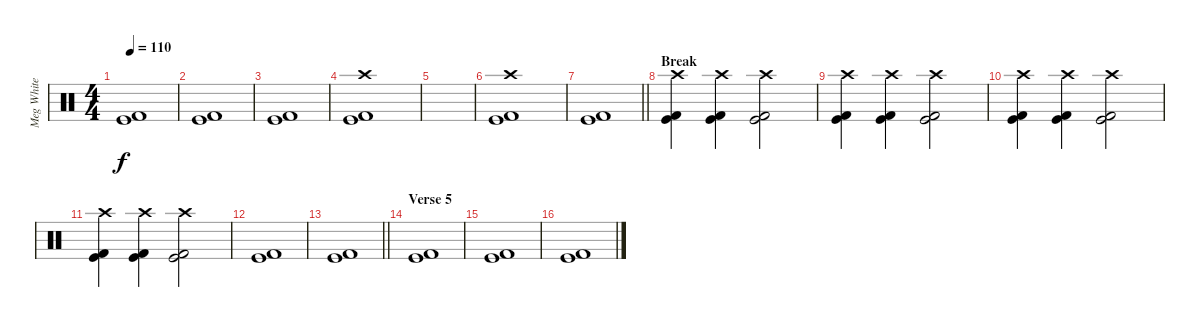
\track ("Meg White (Drums)" "Meg White ") {instrument percussion}
\staff {score}
\articulation defaults
\ts (4 4)
\tempo 110
\clef neutral
\ks c
("Kick (hit)" "Kick (hit) 2").1{dy f} |
("Kick (hit)" "Kick (hit) 2").1 |
("Kick (hit)" "Kick (hit) 2").1 |
("Kick (hit)" "Kick (hit) 2" "Crash high (hit)").1 |
|
("Kick (hit)" "Kick (hit) 2" "Crash high (hit)").1 |
\barLineRight lightlight
("Kick (hit)" "Kick (hit) 2").1 |
\section ("" "Break")
("Kick (hit)" "Kick (hit) 2" "Crash high (hit)").4 ("Kick (hit)" "Kick (hit) 2" "Crash high (hit)").4 ("Kick (hit)" "Kick (hit) 2" "Crash high (hit)").2 |
("Kick (hit)" "Kick (hit) 2" "Crash high (hit)").4 ("Kick (hit)" "Kick (hit) 2" "Crash high (hit)").4 ("Kick (hit)" "Kick (hit) 2" "Crash high (hit)").2 |
("Kick (hit)" "Kick (hit) 2" "Crash high (hit)").4 ("Kick (hit)" "Kick (hit) 2" "Crash high (hit)").4 ("Kick (hit)" "Kick (hit) 2" "Crash high (hit)").2 |
("Kick (hit)" "Kick (hit) 2" "Crash high (hit)").4 ("Kick (hit)" "Kick (hit) 2" "Crash high (hit)").4 ("Kick (hit)" "Kick (hit) 2" "Crash high (hit)").2 |
("Kick (hit)" "Kick (hit) 2").1 |
\barLineRight lightlight
("Kick (hit)" "Kick (hit) 2").1 |
\section ("" "Verse 5")
("Kick (hit)" "Kick (hit) 2").1 |
("Kick (hit)" "Kick (hit) 2").1 |
("Kick (hit)" "Kick (hit) 2").1
